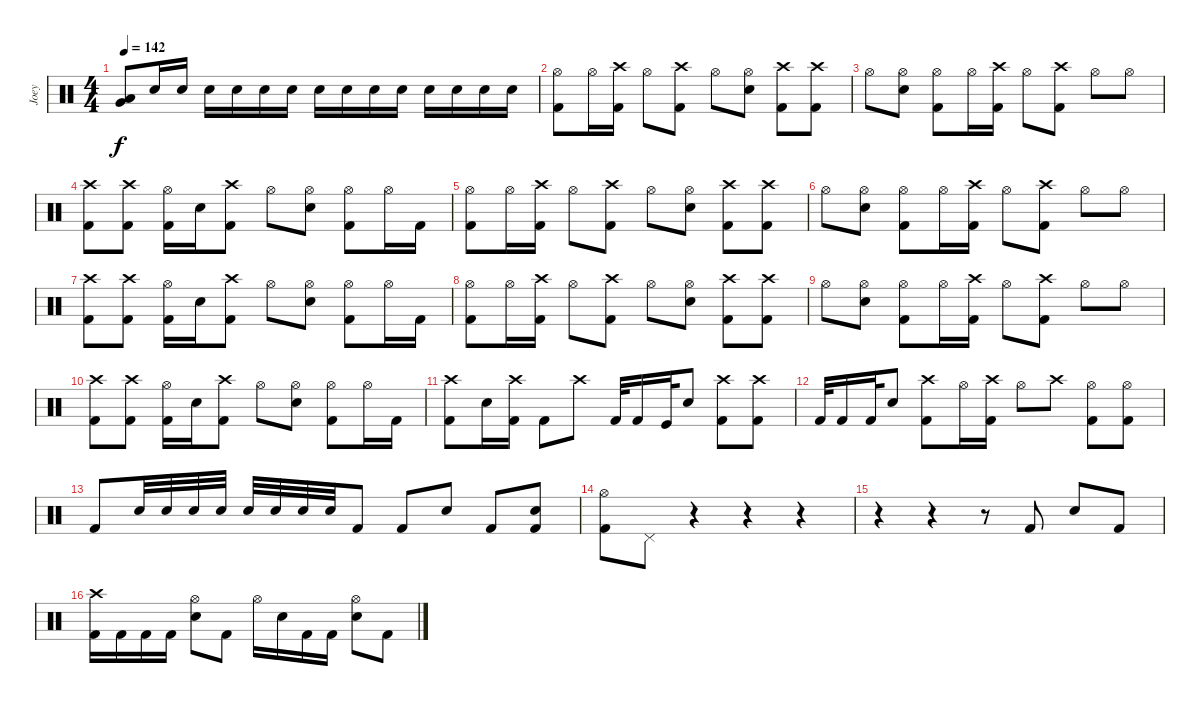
\track ("Joey" "Joey") {instrument percussion}
\staff {score}
\articulation defaults
\ts (4 4)
\tempo 142
\clef neutral
\ks c
("Very Low Tom (hit)" "Low Floor Tom (hit)").8{dy f} "Electric Snare (hit)".16 "Electric Snare (hit)".16 "Electric Snare (hit)".16 "Electric Snare (hit)".16 "Electric Snare (hit)".16 "Electric Snare (hit)".16 "Electric Snare (hit)".16 "Electric Snare (hit)".16 "Electric Snare (hit)".16 "Electric Snare (hit)".16 "Electric Snare (hit)".16 "Electric Snare (hit)".16 "Electric Snare (hit)".16 "Electric Snare (hit)".16 |
("Hi-Hat (open)" "Kick (hit) 2").8 "Hi-Hat (open)".16 ("Crash high (hit)" "Kick (hit) 2").16 "Hi-Hat (open)".8 ("Crash high (hit)" "Kick (hit) 2").8 "Hi-Hat (open)".8 ("Hi-Hat (open)" "Electric Snare (hit)").8 ("Crash high (hit)" "Kick (hit) 2").8 ("Crash high (hit)" "Kick (hit) 2").8 |
"Hi-Hat (open)".8 ("Hi-Hat (open)" "Electric Snare (hit)").8 ("Hi-Hat (open)" "Kick (hit) 2").8 "Hi-Hat (open)".16 ("Crash high (hit)" "Kick (hit) 2").16 "Hi-Hat (open)".8 ("Crash high (hit)" "Kick (hit) 2").8 "Hi-Hat (open)".8 "Hi-Hat (open)".8 |
("Crash high (hit)" "Kick (hit) 2").8 ("Crash high (hit)" "Kick (hit) 2").8 ("Hi-Hat (open)" "Kick (hit) 2").16 "Electric Snare (hit)".16 ("Crash high (hit)" "Kick (hit) 2").8 "Hi-Hat (open)".8 ("Hi-Hat (open)" "Electric Snare (hit)").8 ("Hi-Hat (open)" "Kick (hit) 2").8 "Hi-Hat (open)".16 "Kick (hit) 2".16 |
("Hi-Hat (open)" "Kick (hit) 2").8 "Hi-Hat (open)".16 ("Crash high (hit)" "Kick (hit) 2").16 "Hi-Hat (open)".8 ("Crash high (hit)" "Kick (hit) 2").8 "Hi-Hat (open)".8 ("Hi-Hat (open)" "Electric Snare (hit)").8 ("Crash high (hit)" "Kick (hit) 2").8 ("Crash high (hit)" "Kick (hit) 2").8 |
"Hi-Hat (open)".8 ("Hi-Hat (open)" "Electric Snare (hit)").8 ("Hi-Hat (open)" "Kick (hit) 2").8 "Hi-Hat (open)".16 ("Crash high (hit)" "Kick (hit) 2").16 "Hi-Hat (open)".8 ("Crash high (hit)" "Kick (hit) 2").8 "Hi-Hat (open)".8 "Hi-Hat (open)".8 |
("Crash high (hit)" "Kick (hit) 2").8 ("Crash high (hit)" "Kick (hit) 2").8 ("Hi-Hat (open)" "Kick (hit) 2").16 "Electric Snare (hit)".16 ("Crash high (hit)" "Kick (hit) 2").8 "Hi-Hat (open)".8 ("Hi-Hat (open)" "Electric Snare (hit)").8 ("Hi-Hat (open)" "Kick (hit) 2").8 "Hi-Hat (open)".16 "Kick (hit) 2".16 |
("Hi-Hat (open)" "Kick (hit) 2").8 "Hi-Hat (open)".16 ("Crash high (hit)" "Kick (hit) 2").16 "Hi-Hat (open)".8 ("Crash high (hit)" "Kick (hit) 2").8 "Hi-Hat (open)".8 ("Hi-Hat (open)" "Electric Snare (hit)").8 ("Crash high (hit)" "Kick (hit) 2").8 ("Crash high (hit)" "Kick (hit) 2").8 |
"Hi-Hat (open)".8 ("Hi-Hat (open)" "Electric Snare (hit)").8 ("Hi-Hat (open)" "Kick (hit) 2").8 "Hi-Hat (open)".16 ("Crash high (hit)" "Kick (hit) 2").16 "Hi-Hat (open)".8 ("Crash high (hit)" "Kick (hit) 2").8 "Hi-Hat (open)".8 "Hi-Hat (open)".8 |
("Crash high (hit)" "Kick (hit) 2").8 ("Crash high (hit)" "Kick (hit) 2").8 ("Hi-Hat (open)" "Kick (hit) 2").16 "Electric Snare (hit)".16 ("Crash high (hit)" "Kick (hit) 2").8 "Hi-Hat (open)".8 ("Hi-Hat (open)" "Electric Snare (hit)").8 ("Hi-Hat (open)" "Kick (hit) 2").8 "Hi-Hat (open)".16 "Kick (hit) 2".16 |
("Crash high (hit)" "Kick (hit) 2").8 "Electric Snare (hit)".16 ("Crash high (hit)" "Kick (hit) 2").16 "Kick (hit) 2".8 "Crash high (hit)".8 "Kick (hit) 2".32 "Kick (hit) 2".16 "Kick (hit)".32 "Electric Snare (hit)".8 ("Crash high (hit)" "Kick (hit) 2").8 ("Crash high (hit)" "Kick (hit) 2").8 |
"Kick (hit) 2".32 "Kick (hit) 2".16 "Kick (hit) 2".32 "Electric Snare (hit)".8 ("Crash high (hit)" "Kick (hit) 2").8 "Hi-Hat (open)".16 ("Crash high (hit)" "Kick (hit) 2").16 "Hi-Hat (open)".8 "Crash high (hit)".8 ("Hi-Hat (open)" "Kick (hit) 2").8 ("Hi-Hat (open)" "Kick (hit) 2").8 |
"Kick (hit) 2".8 "Electric Snare (hit)".32 "Electric Snare (hit)".32 "Electric Snare (hit)".32 "Electric Snare (hit)".32 "Electric Snare (hit)".32 "Electric Snare (hit)".32 "Electric Snare (hit)".32 "Electric Snare (hit)".32 "Kick (hit) 2".8 "Kick (hit) 2".8 "Electric Snare (hit)".8 "Kick (hit) 2".8 ("Electric Snare (hit)" "Kick (hit) 2").8 |
("Hi-Hat (open)" "Kick (hit) 2").8 "Pedal Hi-Hat (hit)".8 r.4 r.4 r.4 |
r.4 r.4 r.8 "Kick (hit) 2".8 "Electric Snare (hit)".8 "Kick (hit) 2".8 |
("Crash high (hit)" "Kick (hit) 2").16 "Kick (hit) 2".16 "Kick (hit) 2".16 "Kick (hit) 2".16 ("Hi-Hat (open)" "Electric Snare (hit)").8 "Kick (hit) 2".8 "Hi-Hat (open)".16 "Electric Snare (hit)".16 "Kick (hit) 2".16 "Kick (hit) 2".16 ("Hi-Hat (open)" "Electric Snare (hit)").8 "Kick (hit) 2".8
